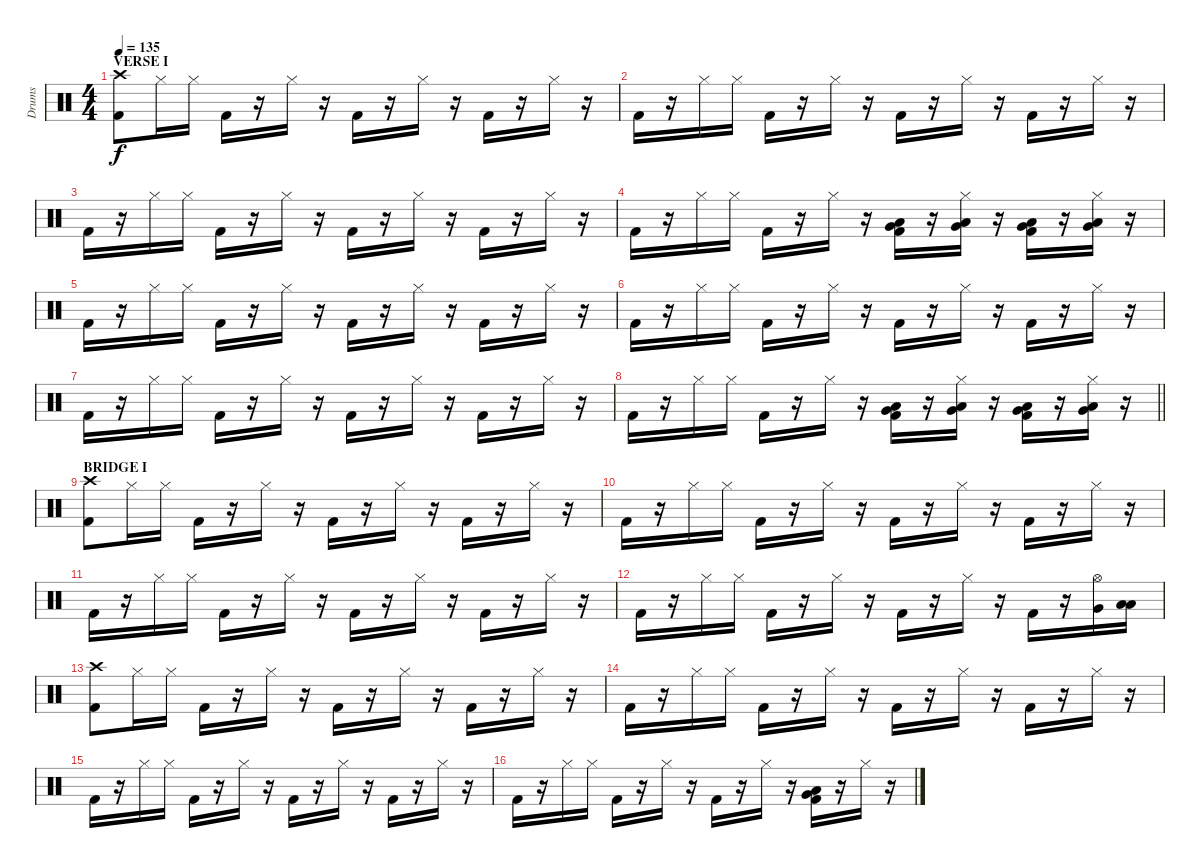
\track ("Drums" "Drums") {instrument percussion}
\staff {score}
\articulation defaults
\ts (4 4)
\section ("" "VERSE I")
\tempo 135
\clef neutral
\ks c
("Kick (hit) 2" "Crash high (hit)").8{dy f} "Hi-Hat (closed)".16 "Hi-Hat (closed)".16 "Kick (hit) 2".16 r.16 "Hi-Hat (closed)".16 r.16 "Kick (hit) 2".16 r.16 "Hi-Hat (closed)".16 r.16 "Kick (hit) 2".16 r.16 "Hi-Hat (closed)".16 r.16 |
"Kick (hit) 2".16 r.16 "Hi-Hat (closed)".16 "Hi-Hat (closed)".16 "Kick (hit) 2".16 r.16 "Hi-Hat (closed)".16 r.16 "Kick (hit) 2".16 r.16 "Hi-Hat (closed)".16 r.16 "Kick (hit) 2".16 r.16 "Hi-Hat (closed)".16 r.16 |
"Kick (hit) 2".16 r.16 "Hi-Hat (closed)".16 "Hi-Hat (closed)".16 "Kick (hit) 2".16 r.16 "Hi-Hat (closed)".16 r.16 "Kick (hit) 2".16 r.16 "Hi-Hat (closed)".16 r.16 "Kick (hit) 2".16 r.16 "Hi-Hat (closed)".16 r.16 |
"Kick (hit) 2".16 r.16 "Hi-Hat (closed)".16 "Hi-Hat (closed)".16 "Kick (hit) 2".16 r.16 "Hi-Hat (closed)".16 r.16 ("Kick (hit) 2" "Very Low Tom (hit)" "Low Tom (hit)").16 r.16 ("Hi-Hat (closed)" "Low Tom (hit)" "Very Low Tom (hit)").16 r.16 ("Kick (hit) 2" "Very Low Tom (hit)" "Low Tom (hit)").16 r.16 ("Hi-Hat (closed)" "Low Tom (hit)" "Very Low Tom (hit)").16 r.16 |
"Kick (hit) 2".16 r.16 "Hi-Hat (closed)".16 "Hi-Hat (closed)".16 "Kick (hit) 2".16 r.16 "Hi-Hat (closed)".16 r.16 "Kick (hit) 2".16 r.16 "Hi-Hat (closed)".16 r.16 "Kick (hit) 2".16 r.16 "Hi-Hat (closed)".16 r.16 |
"Kick (hit) 2".16 r.16 "Hi-Hat (closed)".16 "Hi-Hat (closed)".16 "Kick (hit) 2".16 r.16 "Hi-Hat (closed)".16 r.16 "Kick (hit) 2".16 r.16 "Hi-Hat (closed)".16 r.16 "Kick (hit) 2".16 r.16 "Hi-Hat (closed)".16 r.16 |
"Kick (hit) 2".16 r.16 "Hi-Hat (closed)".16 "Hi-Hat (closed)".16 "Kick (hit) 2".16 r.16 "Hi-Hat (closed)".16 r.16 "Kick (hit) 2".16 r.16 "Hi-Hat (closed)".16 r.16 "Kick (hit) 2".16 r.16 "Hi-Hat (closed)".16 r.16 |
\barLineRight lightlight "Kick (hit) 2".16
r.16 "Hi-Hat (closed)".16 "Hi-Hat (closed)".16 "Kick (hit) 2".16 r.16 "Hi-Hat (closed)".16 r.16 ("Kick (hit) 2" "Very Low Tom (hit)" "Low Tom (hit)").16 r.16 ("Hi-Hat (closed)" "Low Tom (hit)" "Very Low Tom (hit)").16 r.16 ("Kick (hit) 2" "Very Low Tom (hit)" "Low Tom (hit)").16 r.16 ("Hi-Hat (closed)" "Low Tom (hit)" "Very Low Tom (hit)").16 r.16 |
\section ("" "BRIDGE I")
("Kick (hit) 2" "Crash high (hit)").8 "Hi-Hat (closed)".16 "Hi-Hat (closed)".16 "Kick (hit) 2".16 r.16 "Hi-Hat (closed)".16 r.16 "Kick (hit) 2".16 r.16 "Hi-Hat (closed)".16 r.16 "Kick (hit) 2".16 r.16 "Hi-Hat (closed)".16 r.16 |
"Kick (hit) 2".16 r.16 "Hi-Hat (closed)".16 "Hi-Hat (closed)".16 "Kick (hit) 2".16 r.16 "Hi-Hat (closed)".16 r.16 "Kick (hit) 2".16 r.16 "Hi-Hat (closed)".16 r.16 "Kick (hit) 2".16 r.16 "Hi-Hat (closed)".16 r.16 |
"Kick (hit) 2".16 r.16 "Hi-Hat (closed)".16 "Hi-Hat (closed)".16 "Kick (hit) 2".16 r.16 "Hi-Hat (closed)".16 r.16 "Kick (hit) 2".16 r.16 "Hi-Hat (closed)".16 r.16 "Kick (hit) 2".16 r.16 "Hi-Hat (closed)".16 r.16 |
"Kick (hit) 2".16 r.16 "Hi-Hat (closed)".16 "Hi-Hat (closed)".16 "Kick (hit) 2".16 r.16 "Hi-Hat (closed)".16 r.16 "Kick (hit) 2".16 r.16 "Hi-Hat (closed)".16 r.16 "Kick (hit) 2".16 r.16 ("Hi-Hat (open)" "Very Low Tom (hit)").16 ("Low Tom (hit)" "Low Floor Tom (hit)").16 |
("Kick (hit) 2" "Crash high (hit)").8 "Hi-Hat (closed)".16 "Hi-Hat (closed)".16 "Kick (hit) 2".16 r.16 "Hi-Hat (closed)".16 r.16 "Kick (hit) 2".16 r.16 "Hi-Hat (closed)".16 r.16 "Kick (hit) 2".16 r.16 "Hi-Hat (closed)".16 r.16 |
"Kick (hit) 2".16 r.16 "Hi-Hat (closed)".16 "Hi-Hat (closed)".16 "Kick (hit) 2".16 r.16 "Hi-Hat (closed)".16 r.16 "Kick (hit) 2".16 r.16 "Hi-Hat (closed)".16 r.16 "Kick (hit) 2".16 r.16 "Hi-Hat (closed)".16 r.16 |
"Kick (hit) 2".16 r.16 "Hi-Hat (closed)".16 "Hi-Hat (closed)".16 "Kick (hit) 2".16 r.16 "Hi-Hat (closed)".16 r.16 "Kick (hit) 2".16 r.16 "Hi-Hat (closed)".16 r.16 "Kick (hit) 2".16 r.16 "Hi-Hat (closed)".16 r.16 |
"Kick (hit) 2".16 r.16 "Hi-Hat (closed)".16 "Hi-Hat (closed)".16 "Kick (hit) 2".16 r.16 "Hi-Hat (closed)".16 r.16 "Kick (hit) 2".16 r.16 "Hi-Hat (closed)".16 r.16 ("Kick (hit) 2" "Very Low Tom (hit)" "Low Tom (hit)").16 r.16 "Hi-Hat (closed)".16 r.16
